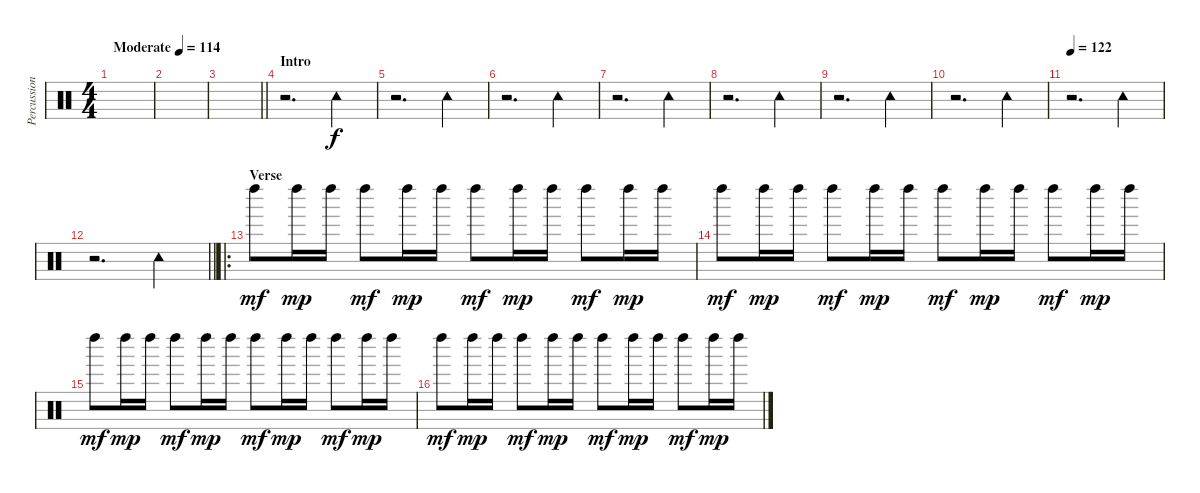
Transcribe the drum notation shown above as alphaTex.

\track ("Percussioni" "Percussion") {instrument percussion}
\staff {score}
\articulation defaults
\ts (4 4)
\tempo (114 "Moderate")
\clef neutral
\ks c
|
|
\barLineRight lightlight
|
\section ("" "Intro")
r.2{d} "Tambourine (hit)".4 |
r.2{d} "Tambourine (hit)".4 |
r.2{d} "Tambourine (hit)".4 |
r.2{d} "Tambourine (hit)".4 |
r.2{d} "Tambourine (hit)".4 |
r.2{d} "Tambourine (hit)".4 |
r.2{d} "Tambourine (hit)".4 |
\tempo 122
r.2{d} "Tambourine (hit)".4 |
\barLineRight lightlight
r.2{d} "Tambourine (hit)".4 |
\ro
\section ("" "Verse")
"Left Maraca (hit)".8{dy mf} "Left Maraca (hit)".16{dy mp} "Left Maraca (hit)".16 "Left Maraca (hit)".8{dy mf} "Left Maraca (hit)".16{dy mp} "Left Maraca (hit)".16 "Left Maraca (hit)".8{dy mf} "Left Maraca (hit)".16{dy mp} "Left Maraca (hit)".16 "Left Maraca (hit)".8{dy mf} "Left Maraca (hit)".16{dy mp} "Left Maraca (hit)".16 |
"Left Maraca (hit)".8{dy mf} "Left Maraca (hit)".16{dy mp} "Left Maraca (hit)".16 "Left Maraca (hit)".8{dy mf} "Left Maraca (hit)".16{dy mp} "Left Maraca (hit)".16 "Left Maraca (hit)".8{dy mf} "Left Maraca (hit)".16{dy mp} "Left Maraca (hit)".16 "Left Maraca (hit)".8{dy mf} "Left Maraca (hit)".16{dy mp} "Left Maraca (hit)".16 |
"Left Maraca (hit)".8{dy mf} "Left Maraca (hit)".16{dy mp} "Left Maraca (hit)".16 "Left Maraca (hit)".8{dy mf} "Left Maraca (hit)".16{dy mp} "Left Maraca (hit)".16 "Left Maraca (hit)".8{dy mf} "Left Maraca (hit)".16{dy mp} "Left Maraca (hit)".16 "Left Maraca (hit)".8{dy mf} "Left Maraca (hit)".16{dy mp} "Left Maraca (hit)".16 |
"Left Maraca (hit)".8{dy mf} "Left Maraca (hit)".16{dy mp} "Left Maraca (hit)".16 "Left Maraca (hit)".8{dy mf} "Left Maraca (hit)".16{dy mp} "Left Maraca (hit)".16 "Left Maraca (hit)".8{dy mf} "Left Maraca (hit)".16{dy mp} "Left Maraca (hit)".16 "Left Maraca (hit)".8{dy mf} "Left Maraca (hit)".16{dy mp} "Left Maraca (hit)".16
